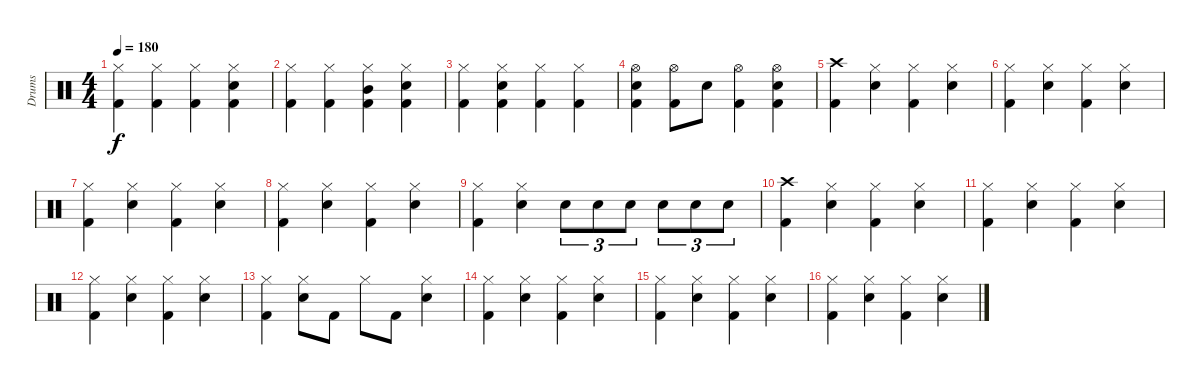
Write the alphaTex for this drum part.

\track ("Drums" "Drums") {instrument percussion}
\staff {score}
\articulation defaults
\ts (4 4)
\tempo 180
\clef neutral
\ks c
("Hi-Hat (closed)" "Kick (hit) 2").4{dy f} ("Hi-Hat (closed)" "Kick (hit) 2").4 ("Hi-Hat (closed)" "Kick (hit) 2").4 ("Hi-Hat (closed)" "Snare (hit) 2" "Kick (hit) 2").4 |
("Hi-Hat (closed)" "Kick (hit) 2").4 ("Hi-Hat (closed)" "Kick (hit) 2").4 ("Hi-Hat (closed)" "Mid Tom (hit)" "Kick (hit) 2").4 ("Hi-Hat (closed)" "Snare (hit) 2" "Kick (hit) 2").4 |
("Hi-Hat (closed)" "Kick (hit) 2").4 ("Hi-Hat (closed)" "Snare (hit) 2" "Kick (hit) 2").4 ("Hi-Hat (closed)" "Kick (hit) 2").4 ("Hi-Hat (closed)" "Kick (hit) 2").4 |
("Hi-Hat (open)" "Snare (hit) 2" "Kick (hit) 2").4 ("Hi-Hat (open)" "Kick (hit) 2").8 "Snare (hit) 2".8 ("Hi-Hat (open)" "Kick (hit) 2").4 ("Hi-Hat (open)" "Snare (hit) 2" "Kick (hit) 2").4 |
("Crash high (hit)" "Kick (hit) 2").4 ("Hi-Hat (closed)" "Snare (hit) 2").4 ("Hi-Hat (closed)" "Kick (hit) 2").4 ("Hi-Hat (closed)" "Snare (hit) 2").4 |
("Hi-Hat (closed)" "Kick (hit) 2").4 ("Hi-Hat (closed)" "Snare (hit) 2").4 ("Hi-Hat (closed)" "Kick (hit) 2").4 ("Hi-Hat (closed)" "Snare (hit) 2").4 |
("Hi-Hat (closed)" "Kick (hit) 2").4 ("Hi-Hat (closed)" "Snare (hit) 2").4 ("Hi-Hat (closed)" "Kick (hit) 2").4 ("Hi-Hat (closed)" "Snare (hit) 2").4 |
("Hi-Hat (closed)" "Kick (hit) 2").4 ("Hi-Hat (closed)" "Snare (hit) 2").4 ("Hi-Hat (closed)" "Kick (hit) 2").4 ("Hi-Hat (closed)" "Snare (hit) 2").4 |
("Hi-Hat (closed)" "Kick (hit) 2").4 ("Hi-Hat (closed)" "Snare (hit) 2").4 "Snare (hit) 2".8{tu (3 2)} "Snare (hit) 2".8{tu (3 2)} "Snare (hit) 2".8{tu (3 2)} "Snare (hit) 2".8{tu (3 2)} "Snare (hit) 2".8{tu (3 2)} "Snare (hit) 2".8{tu (3 2)} |
("Crash high (hit)" "Kick (hit) 2").4 ("Hi-Hat (closed)" "Snare (hit) 2").4 ("Hi-Hat (closed)" "Kick (hit) 2").4 ("Hi-Hat (closed)" "Snare (hit) 2").4 |
("Hi-Hat (closed)" "Kick (hit) 2").4 ("Hi-Hat (closed)" "Snare (hit) 2").4 ("Hi-Hat (closed)" "Kick (hit) 2").4 ("Hi-Hat (closed)" "Snare (hit) 2").4 |
("Hi-Hat (closed)" "Kick (hit) 2").4 ("Hi-Hat (closed)" "Snare (hit) 2").4 ("Hi-Hat (closed)" "Kick (hit) 2").4 ("Hi-Hat (closed)" "Snare (hit) 2").4 |
("Hi-Hat (closed)" "Kick (hit) 2").4 ("Hi-Hat (closed)" "Snare (hit) 2").8 "Kick (hit) 2".8 "Hi-Hat (closed)".8 "Kick (hit) 2".8 ("Hi-Hat (closed)" "Snare (hit) 2").4 |
("Hi-Hat (closed)" "Kick (hit) 2").4 ("Hi-Hat (closed)" "Snare (hit) 2").4 ("Hi-Hat (closed)" "Kick (hit) 2").4 ("Hi-Hat (closed)" "Snare (hit) 2").4 |
("Hi-Hat (closed)" "Kick (hit) 2").4 ("Hi-Hat (closed)" "Snare (hit) 2").4 ("Hi-Hat (closed)" "Kick (hit) 2").4 ("Hi-Hat (closed)" "Snare (hit) 2").4 |
("Hi-Hat (closed)" "Kick (hit) 2").4 ("Hi-Hat (closed)" "Snare (hit) 2").4 ("Hi-Hat (closed)" "Kick (hit) 2").4 ("Hi-Hat (closed)" "Snare (hit) 2").4
